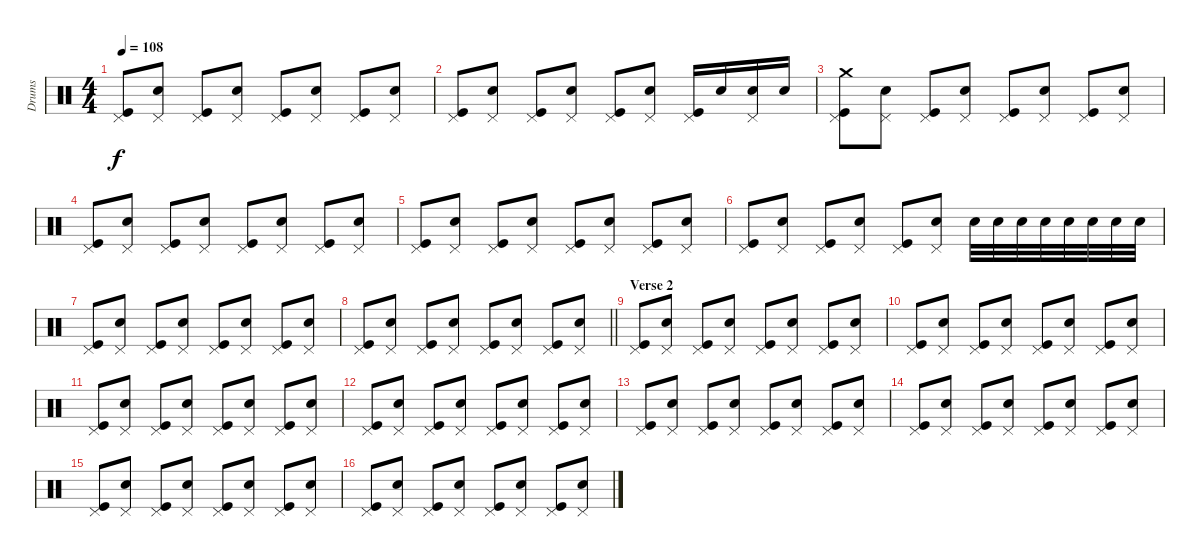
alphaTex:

\track ("Drums" "Drums") {instrument percussion}
\staff {score}
\articulation defaults
\ts (4 4)
\tempo 108
\clef neutral
\ks c
("Pedal Hi-Hat (hit)" "Kick (hit)").8{dy f} ("Pedal Hi-Hat (hit)" "Electric Snare (hit)").8 ("Pedal Hi-Hat (hit)" "Kick (hit)").8 ("Pedal Hi-Hat (hit)" "Electric Snare (hit)").8 ("Pedal Hi-Hat (hit)" "Kick (hit)").8 ("Pedal Hi-Hat (hit)" "Electric Snare (hit)").8 ("Pedal Hi-Hat (hit)" "Kick (hit)").8 ("Pedal Hi-Hat (hit)" "Electric Snare (hit)").8 |
("Pedal Hi-Hat (hit)" "Kick (hit)").8 ("Pedal Hi-Hat (hit)" "Electric Snare (hit)").8 ("Pedal Hi-Hat (hit)" "Kick (hit)").8 ("Pedal Hi-Hat (hit)" "Electric Snare (hit)").8 ("Pedal Hi-Hat (hit)" "Kick (hit)").8 ("Pedal Hi-Hat (hit)" "Electric Snare (hit)").8 ("Pedal Hi-Hat (hit)" "Kick (hit)").16 "Electric Snare (hit)".16 ("Pedal Hi-Hat (hit)" "Electric Snare (hit)").16 "Electric Snare (hit)".16 |
("Pedal Hi-Hat (hit)" "Crash medium (hit)" "Kick (hit)").8 ("Pedal Hi-Hat (hit)" "Electric Snare (hit)").8 ("Pedal Hi-Hat (hit)" "Kick (hit)").8 ("Pedal Hi-Hat (hit)" "Electric Snare (hit)").8 ("Pedal Hi-Hat (hit)" "Kick (hit)").8 ("Pedal Hi-Hat (hit)" "Electric Snare (hit)").8 ("Pedal Hi-Hat (hit)" "Kick (hit)").8 ("Pedal Hi-Hat (hit)" "Electric Snare (hit)").8 |
("Pedal Hi-Hat (hit)" "Kick (hit)").8 ("Pedal Hi-Hat (hit)" "Electric Snare (hit)").8 ("Pedal Hi-Hat (hit)" "Kick (hit)").8 ("Pedal Hi-Hat (hit)" "Electric Snare (hit)").8 ("Pedal Hi-Hat (hit)" "Kick (hit)").8 ("Pedal Hi-Hat (hit)" "Electric Snare (hit)").8 ("Pedal Hi-Hat (hit)" "Kick (hit)").8 ("Pedal Hi-Hat (hit)" "Electric Snare (hit)").8 |
("Pedal Hi-Hat (hit)" "Kick (hit)").8 ("Pedal Hi-Hat (hit)" "Electric Snare (hit)").8 ("Pedal Hi-Hat (hit)" "Kick (hit)").8 ("Pedal Hi-Hat (hit)" "Electric Snare (hit)").8 ("Pedal Hi-Hat (hit)" "Kick (hit)").8 ("Pedal Hi-Hat (hit)" "Electric Snare (hit)").8 ("Pedal Hi-Hat (hit)" "Kick (hit)").8 ("Pedal Hi-Hat (hit)" "Electric Snare (hit)").8 |
("Pedal Hi-Hat (hit)" "Kick (hit)").8 ("Pedal Hi-Hat (hit)" "Electric Snare (hit)").8 ("Pedal Hi-Hat (hit)" "Kick (hit)").8 ("Pedal Hi-Hat (hit)" "Electric Snare (hit)").8 ("Pedal Hi-Hat (hit)" "Kick (hit)").8 ("Pedal Hi-Hat (hit)" "Electric Snare (hit)").8 "Electric Snare (hit)".32 "Electric Snare (hit)".32 "Electric Snare (hit)".32 "Electric Snare (hit)".32 "Electric Snare (hit)".32 "Electric Snare (hit)".32 "Electric Snare (hit)".32 "Electric Snare (hit)".32 |
("Pedal Hi-Hat (hit)" "Kick (hit)").8 ("Pedal Hi-Hat (hit)" "Electric Snare (hit)").8 ("Pedal Hi-Hat (hit)" "Kick (hit)").8 ("Pedal Hi-Hat (hit)" "Electric Snare (hit)").8 ("Pedal Hi-Hat (hit)" "Kick (hit)").8 ("Pedal Hi-Hat (hit)" "Electric Snare (hit)").8 ("Pedal Hi-Hat (hit)" "Kick (hit)").8 ("Pedal Hi-Hat (hit)" "Electric Snare (hit)").8 |
\barLineRight lightlight
("Pedal Hi-Hat (hit)" "Kick (hit)").8 ("Pedal Hi-Hat (hit)" "Electric Snare (hit)").8 ("Pedal Hi-Hat (hit)" "Kick (hit)").8 ("Pedal Hi-Hat (hit)" "Electric Snare (hit)").8 ("Pedal Hi-Hat (hit)" "Kick (hit)").8 ("Pedal Hi-Hat (hit)" "Electric Snare (hit)").8 ("Pedal Hi-Hat (hit)" "Kick (hit)").8 ("Pedal Hi-Hat (hit)" "Electric Snare (hit)").8 |
\section ("" "Verse 2")
("Pedal Hi-Hat (hit)" "Kick (hit)").8 ("Pedal Hi-Hat (hit)" "Electric Snare (hit)").8 ("Pedal Hi-Hat (hit)" "Kick (hit)").8 ("Pedal Hi-Hat (hit)" "Electric Snare (hit)").8 ("Pedal Hi-Hat (hit)" "Kick (hit)").8 ("Pedal Hi-Hat (hit)" "Electric Snare (hit)").8 ("Pedal Hi-Hat (hit)" "Kick (hit)").8 ("Pedal Hi-Hat (hit)" "Electric Snare (hit)").8 |
("Pedal Hi-Hat (hit)" "Kick (hit)").8 ("Pedal Hi-Hat (hit)" "Electric Snare (hit)").8 ("Pedal Hi-Hat (hit)" "Kick (hit)").8 ("Pedal Hi-Hat (hit)" "Electric Snare (hit)").8 ("Pedal Hi-Hat (hit)" "Kick (hit)").8 ("Pedal Hi-Hat (hit)" "Electric Snare (hit)").8 ("Pedal Hi-Hat (hit)" "Kick (hit)").8 ("Pedal Hi-Hat (hit)" "Electric Snare (hit)").8 |
("Pedal Hi-Hat (hit)" "Kick (hit)").8 ("Pedal Hi-Hat (hit)" "Electric Snare (hit)").8 ("Pedal Hi-Hat (hit)" "Kick (hit)").8 ("Pedal Hi-Hat (hit)" "Electric Snare (hit)").8 ("Pedal Hi-Hat (hit)" "Kick (hit)").8 ("Pedal Hi-Hat (hit)" "Electric Snare (hit)").8 ("Pedal Hi-Hat (hit)" "Kick (hit)").8 ("Pedal Hi-Hat (hit)" "Electric Snare (hit)").8 |
("Pedal Hi-Hat (hit)" "Kick (hit)").8 ("Pedal Hi-Hat (hit)" "Electric Snare (hit)").8 ("Pedal Hi-Hat (hit)" "Kick (hit)").8 ("Pedal Hi-Hat (hit)" "Electric Snare (hit)").8 ("Pedal Hi-Hat (hit)" "Kick (hit)").8 ("Pedal Hi-Hat (hit)" "Electric Snare (hit)").8 ("Pedal Hi-Hat (hit)" "Kick (hit)").8 ("Pedal Hi-Hat (hit)" "Electric Snare (hit)").8 |
("Pedal Hi-Hat (hit)" "Kick (hit)").8 ("Pedal Hi-Hat (hit)" "Electric Snare (hit)").8 ("Pedal Hi-Hat (hit)" "Kick (hit)").8 ("Pedal Hi-Hat (hit)" "Electric Snare (hit)").8 ("Pedal Hi-Hat (hit)" "Kick (hit)").8 ("Pedal Hi-Hat (hit)" "Electric Snare (hit)").8 ("Pedal Hi-Hat (hit)" "Kick (hit)").8 ("Pedal Hi-Hat (hit)" "Electric Snare (hit)").8 |
("Pedal Hi-Hat (hit)" "Kick (hit)").8 ("Pedal Hi-Hat (hit)" "Electric Snare (hit)").8 ("Pedal Hi-Hat (hit)" "Kick (hit)").8 ("Pedal Hi-Hat (hit)" "Electric Snare (hit)").8 ("Pedal Hi-Hat (hit)" "Kick (hit)").8 ("Pedal Hi-Hat (hit)" "Electric Snare (hit)").8 ("Pedal Hi-Hat (hit)" "Kick (hit)").8 ("Pedal Hi-Hat (hit)" "Electric Snare (hit)").8 |
("Pedal Hi-Hat (hit)" "Kick (hit)").8 ("Pedal Hi-Hat (hit)" "Electric Snare (hit)").8 ("Pedal Hi-Hat (hit)" "Kick (hit)").8 ("Pedal Hi-Hat (hit)" "Electric Snare (hit)").8 ("Pedal Hi-Hat (hit)" "Kick (hit)").8 ("Pedal Hi-Hat (hit)" "Electric Snare (hit)").8 ("Pedal Hi-Hat (hit)" "Kick (hit)").8 ("Pedal Hi-Hat (hit)" "Electric Snare (hit)").8 |
("Pedal Hi-Hat (hit)" "Kick (hit)").8 ("Pedal Hi-Hat (hit)" "Electric Snare (hit)").8 ("Pedal Hi-Hat (hit)" "Kick (hit)").8 ("Pedal Hi-Hat (hit)" "Electric Snare (hit)").8 ("Pedal Hi-Hat (hit)" "Kick (hit)").8 ("Pedal Hi-Hat (hit)" "Electric Snare (hit)").8 ("Pedal Hi-Hat (hit)" "Kick (hit)").8 ("Pedal Hi-Hat (hit)" "Electric Snare (hit)").8
